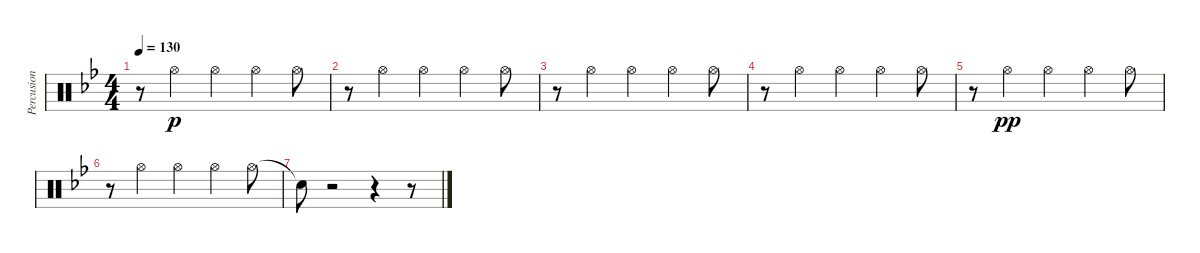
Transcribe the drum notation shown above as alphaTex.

\track ("Percusion IV" "Percusion ") {instrument percussion}
\staff {score}
\articulation defaults
\ts (4 4)
\tempo 130
\clef neutral
\ks gminor
r.8{dy p} "Hi-Hat (open)".4 "Hi-Hat (open)".4 "Hi-Hat (open)".4 "Hi-Hat (open)".8 |
r.8 "Hi-Hat (open)".4 "Hi-Hat (open)".4 "Hi-Hat (open)".4 "Hi-Hat (open)".8 |
r.8 "Hi-Hat (open)".4 "Hi-Hat (open)".4 "Hi-Hat (open)".4 "Hi-Hat (open)".8 |
r.8 "Hi-Hat (open)".4 "Hi-Hat (open)".4 "Hi-Hat (open)".4 "Hi-Hat (open)".8 |
r.8 "Hi-Hat (open)".4{dy pp} "Hi-Hat (open)".4 "Hi-Hat (open)".4 "Hi-Hat (open)".8 |
r.8 "Hi-Hat (open)".4 "Hi-Hat (open)".4 "Hi-Hat (open)".4 "Hi-Hat (open)".8 |
"Snare (hit)"{t}.8 r.2 r.4 r.8
